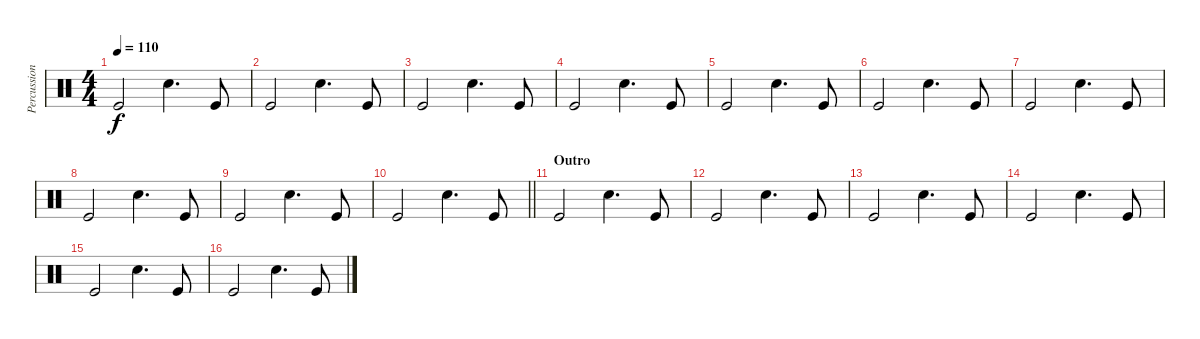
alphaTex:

\track ("Percussion" "Percussion") {instrument percussion}
\staff {score}
\articulation defaults
\ts (4 4)
\tempo 110
\clef neutral
\ks c "Kick (hit)".2{dy f} "Electric Snare (hit)".4{d} "Kick (hit)".8
|
"Kick (hit)".2 "Electric Snare (hit)".4{d} "Kick (hit)".8 |
"Kick (hit)".2 "Electric Snare (hit)".4{d} "Kick (hit)".8 |
"Kick (hit)".2 "Electric Snare (hit)".4{d} "Kick (hit)".8 |
"Kick (hit)".2 "Electric Snare (hit)".4{d} "Kick (hit)".8 |
"Kick (hit)".2 "Electric Snare (hit)".4{d} "Kick (hit)".8 |
"Kick (hit)".2 "Electric Snare (hit)".4{d} "Kick (hit)".8 |
"Kick (hit)".2 "Electric Snare (hit)".4{d} "Kick (hit)".8 |
"Kick (hit)".2 "Electric Snare (hit)".4{d} "Kick (hit)".8 |
\barLineRight lightlight "Kick (hit)".2 "Electric Snare (hit)".4{d} "Kick (hit)".8
|
\section ("" "Outro")
"Kick (hit)".2 "Electric Snare (hit)".4{d} "Kick (hit)".8 |
"Kick (hit)".2 "Electric Snare (hit)".4{d} "Kick (hit)".8 |
"Kick (hit)".2 "Electric Snare (hit)".4{d} "Kick (hit)".8 |
"Kick (hit)".2 "Electric Snare (hit)".4{d} "Kick (hit)".8 |
"Kick (hit)".2 "Electric Snare (hit)".4{d} "Kick (hit)".8 |
"Kick (hit)".2 "Electric Snare (hit)".4{d} "Kick (hit)".8
